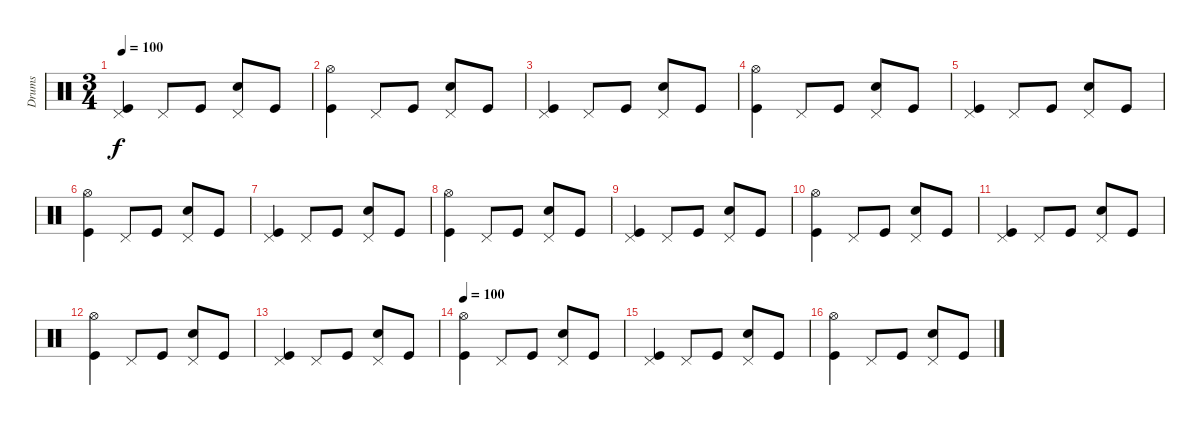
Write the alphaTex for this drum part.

\track ("Drums" "Drums") {instrument percussion}
\staff {score}
\articulation defaults
\ts (3 4)
\tempo 100
\clef neutral
\ks c
("Pedal Hi-Hat (hit)" "Kick (hit)").4{dy f} "Pedal Hi-Hat (hit)".8 "Kick (hit)".8 ("Pedal Hi-Hat (hit)" "Snare (hit) 2").8 "Kick (hit)".8 |
("Hi-Hat (open)" "Kick (hit)").4 "Pedal Hi-Hat (hit)".8 "Kick (hit)".8 ("Pedal Hi-Hat (hit)" "Snare (hit) 2").8 "Kick (hit)".8 |
("Pedal Hi-Hat (hit)" "Kick (hit)").4 "Pedal Hi-Hat (hit)".8 "Kick (hit)".8 ("Pedal Hi-Hat (hit)" "Snare (hit) 2").8 "Kick (hit)".8 |
("Hi-Hat (open)" "Kick (hit)").4 "Pedal Hi-Hat (hit)".8 "Kick (hit)".8 ("Pedal Hi-Hat (hit)" "Snare (hit) 2").8 "Kick (hit)".8 |
("Pedal Hi-Hat (hit)" "Kick (hit)").4 "Pedal Hi-Hat (hit)".8 "Kick (hit)".8 ("Pedal Hi-Hat (hit)" "Snare (hit) 2").8 "Kick (hit)".8 |
("Hi-Hat (open)" "Kick (hit)").4 "Pedal Hi-Hat (hit)".8 "Kick (hit)".8 ("Pedal Hi-Hat (hit)" "Snare (hit) 2").8 "Kick (hit)".8 |
("Pedal Hi-Hat (hit)" "Kick (hit)").4 "Pedal Hi-Hat (hit)".8 "Kick (hit)".8 ("Pedal Hi-Hat (hit)" "Snare (hit) 2").8 "Kick (hit)".8 |
("Hi-Hat (open)" "Kick (hit)").4 "Pedal Hi-Hat (hit)".8 "Kick (hit)".8 ("Pedal Hi-Hat (hit)" "Snare (hit) 2").8 "Kick (hit)".8 |
("Pedal Hi-Hat (hit)" "Kick (hit)").4 "Pedal Hi-Hat (hit)".8 "Kick (hit)".8 ("Pedal Hi-Hat (hit)" "Snare (hit) 2").8 "Kick (hit)".8 |
("Hi-Hat (open)" "Kick (hit)").4 "Pedal Hi-Hat (hit)".8 "Kick (hit)".8 ("Pedal Hi-Hat (hit)" "Snare (hit) 2").8 "Kick (hit)".8 |
("Pedal Hi-Hat (hit)" "Kick (hit)").4 "Pedal Hi-Hat (hit)".8 "Kick (hit)".8 ("Pedal Hi-Hat (hit)" "Snare (hit) 2").8 "Kick (hit)".8 |
("Hi-Hat (open)" "Kick (hit)").4 "Pedal Hi-Hat (hit)".8 "Kick (hit)".8 ("Pedal Hi-Hat (hit)" "Snare (hit) 2").8 "Kick (hit)".8 |
("Pedal Hi-Hat (hit)" "Kick (hit)").4 "Pedal Hi-Hat (hit)".8 "Kick (hit)".8 ("Pedal Hi-Hat (hit)" "Snare (hit) 2").8 "Kick (hit)".8 |
\tempo 100
("Hi-Hat (open)" "Kick (hit)").4 "Pedal Hi-Hat (hit)".8 "Kick (hit)".8 ("Pedal Hi-Hat (hit)" "Snare (hit) 2").8 "Kick (hit)".8 |
("Pedal Hi-Hat (hit)" "Kick (hit)").4 "Pedal Hi-Hat (hit)".8 "Kick (hit)".8 ("Pedal Hi-Hat (hit)" "Snare (hit) 2").8 "Kick (hit)".8 |
("Hi-Hat (open)" "Kick (hit)").4 "Pedal Hi-Hat (hit)".8 "Kick (hit)".8 ("Pedal Hi-Hat (hit)" "Snare (hit) 2").8 "Kick (hit)".8
